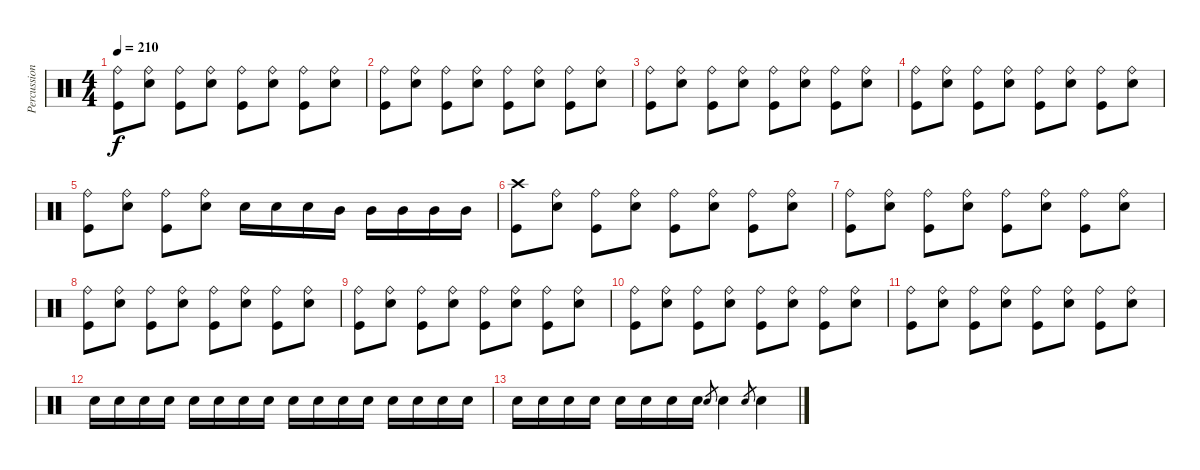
\track ("Percussions" "Percussion") {instrument percussion}
\staff {score}
\articulation defaults
\ts (4 4)
\tempo 210
\clef neutral
\ks c
("Kick (hit)" "Ride (bell)").8{dy f} ("Electric Snare (hit)" "Ride (bell)").8 ("Kick (hit)" "Ride (bell)").8 ("Electric Snare (hit)" "Ride (bell)").8 ("Kick (hit)" "Ride (bell)").8 ("Electric Snare (hit)" "Ride (bell)").8 ("Kick (hit)" "Ride (bell)").8 ("Electric Snare (hit)" "Ride (bell)").8 |
("Kick (hit)" "Ride (bell)").8 ("Electric Snare (hit)" "Ride (bell)").8 ("Kick (hit)" "Ride (bell)").8 ("Electric Snare (hit)" "Ride (bell)").8 ("Kick (hit)" "Ride (bell)").8 ("Electric Snare (hit)" "Ride (bell)").8 ("Kick (hit)" "Ride (bell)").8 ("Electric Snare (hit)" "Ride (bell)").8 |
("Kick (hit)" "Ride (bell)").8 ("Electric Snare (hit)" "Ride (bell)").8 ("Kick (hit)" "Ride (bell)").8 ("Electric Snare (hit)" "Ride (bell)").8 ("Kick (hit)" "Ride (bell)").8 ("Electric Snare (hit)" "Ride (bell)").8 ("Kick (hit)" "Ride (bell)").8 ("Electric Snare (hit)" "Ride (bell)").8 |
("Kick (hit)" "Ride (bell)").8 ("Electric Snare (hit)" "Ride (bell)").8 ("Kick (hit)" "Ride (bell)").8 ("Electric Snare (hit)" "Ride (bell)").8 ("Kick (hit)" "Ride (bell)").8 ("Electric Snare (hit)" "Ride (bell)").8 ("Kick (hit)" "Ride (bell)").8 ("Electric Snare (hit)" "Ride (bell)").8 |
("Kick (hit)" "Ride (bell)").8 ("Electric Snare (hit)" "Ride (bell)").8 ("Kick (hit)" "Ride (bell)").8 ("Electric Snare (hit)" "Ride (bell)").8 "Electric Snare (hit)".16 "Electric Snare (hit)".16 "Electric Snare (hit)".16 "Mid Tom (hit)".16 "Mid Tom (hit)".16 "Mid Tom (hit)".16 "Mid Tom (hit)".16 "Mid Tom (hit)".16 |
("Kick (hit)" "Crash high (hit)").8 ("Electric Snare (hit)" "Ride (bell)").8 ("Kick (hit)" "Ride (bell)").8 ("Electric Snare (hit)" "Ride (bell)").8 ("Kick (hit)" "Ride (bell)").8 ("Electric Snare (hit)" "Ride (bell)").8 ("Kick (hit)" "Ride (bell)").8 ("Electric Snare (hit)" "Ride (bell)").8 |
("Kick (hit)" "Ride (bell)").8 ("Electric Snare (hit)" "Ride (bell)").8 ("Kick (hit)" "Ride (bell)").8 ("Electric Snare (hit)" "Ride (bell)").8 ("Kick (hit)" "Ride (bell)").8 ("Electric Snare (hit)" "Ride (bell)").8 ("Kick (hit)" "Ride (bell)").8 ("Electric Snare (hit)" "Ride (bell)").8 |
("Kick (hit)" "Ride (bell)").8 ("Electric Snare (hit)" "Ride (bell)").8 ("Kick (hit)" "Ride (bell)").8 ("Electric Snare (hit)" "Ride (bell)").8 ("Kick (hit)" "Ride (bell)").8 ("Electric Snare (hit)" "Ride (bell)").8 ("Kick (hit)" "Ride (bell)").8 ("Electric Snare (hit)" "Ride (bell)").8 |
("Kick (hit)" "Ride (bell)").8 ("Electric Snare (hit)" "Ride (bell)").8 ("Kick (hit)" "Ride (bell)").8 ("Electric Snare (hit)" "Ride (bell)").8 ("Kick (hit)" "Ride (bell)").8 ("Electric Snare (hit)" "Ride (bell)").8 ("Kick (hit)" "Ride (bell)").8 ("Electric Snare (hit)" "Ride (bell)").8 |
("Kick (hit)" "Ride (bell)").8 ("Electric Snare (hit)" "Ride (bell)").8 ("Kick (hit)" "Ride (bell)").8 ("Electric Snare (hit)" "Ride (bell)").8 ("Kick (hit)" "Ride (bell)").8 ("Electric Snare (hit)" "Ride (bell)").8 ("Kick (hit)" "Ride (bell)").8 ("Electric Snare (hit)" "Ride (bell)").8 |
("Kick (hit)" "Ride (bell)").8 ("Electric Snare (hit)" "Ride (bell)").8 ("Kick (hit)" "Ride (bell)").8 ("Electric Snare (hit)" "Ride (bell)").8 ("Kick (hit)" "Ride (bell)").8 ("Electric Snare (hit)" "Ride (bell)").8 ("Kick (hit)" "Ride (bell)").8 ("Electric Snare (hit)" "Ride (bell)").8 |
"Electric Snare (hit)".16 "Electric Snare (hit)".16 "Electric Snare (hit)".16 "Electric Snare (hit)".16 "Electric Snare (hit)".16 "Electric Snare (hit)".16 "Electric Snare (hit)".16 "Electric Snare (hit)".16 "Electric Snare (hit)".16 "Electric Snare (hit)".16 "Electric Snare (hit)".16 "Electric Snare (hit)".16 "Electric Snare (hit)".16 "Electric Snare (hit)".16 "Electric Snare (hit)".16 "Electric Snare (hit)".16 |
"Electric Snare (hit)".16 "Electric Snare (hit)".16 "Electric Snare (hit)".16 "Electric Snare (hit)".16 "Electric Snare (hit)".16 "Electric Snare (hit)".16 "Electric Snare (hit)".16 "Electric Snare (hit)".16 "Electric Snare (hit)".8{gr} "Electric Snare (hit)".4 "Electric Snare (hit)".8{gr} "Electric Snare (hit)".4
